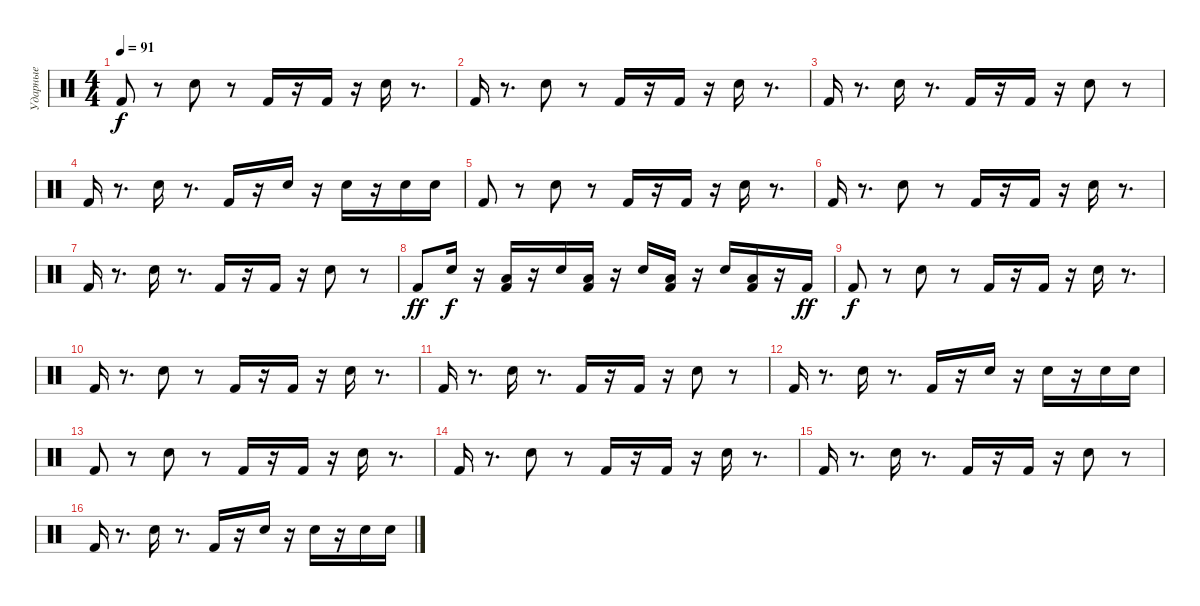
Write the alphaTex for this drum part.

\track ("Ударные" "Ударные") {instrument percussion}
\staff {score}
\articulation defaults
\ts (4 4)
\tempo 91
\clef neutral
\ks c "Kick (hit) 2".8{dy f}
r.8 "Electric Snare (hit)".8 r.8 "Kick (hit) 2".16 r.16 "Kick (hit) 2".16 r.16 "Electric Snare (hit)".16 r.8{d} |
"Kick (hit) 2".16 r.8{d} "Electric Snare (hit)".8 r.8 "Kick (hit) 2".16 r.16 "Kick (hit) 2".16 r.16 "Electric Snare (hit)".16 r.8{d} |
"Kick (hit) 2".16 r.8{d} "Electric Snare (hit)".16 r.8{d} "Kick (hit) 2".16 r.16 "Kick (hit) 2".16 r.16 "Electric Snare (hit)".8 r.8 |
"Kick (hit) 2".16 r.8{d} "Electric Snare (hit)".16 r.8{d} "Kick (hit) 2".16 r.16 "Electric Snare (hit)".16 r.16 "Electric Snare (hit)".16 r.16 "Electric Snare (hit)".16 "Electric Snare (hit)".16 |
"Kick (hit) 2".8 r.8 "Electric Snare (hit)".8 r.8 "Kick (hit) 2".16 r.16 "Kick (hit) 2".16 r.16 "Electric Snare (hit)".16 r.8{d} |
"Kick (hit) 2".16 r.8{d} "Electric Snare (hit)".8 r.8 "Kick (hit) 2".16 r.16 "Kick (hit) 2".16 r.16 "Electric Snare (hit)".16 r.8{d} |
"Kick (hit) 2".16 r.8{d} "Electric Snare (hit)".16 r.8{d} "Kick (hit) 2".16 r.16 "Kick (hit) 2".16 r.16 "Electric Snare (hit)".8 r.8 |
"Kick (hit) 2".8{dy ff} "Electric Snare (hit)".16{dy f} r.16 ("Low Floor Tom (hit)" "Kick (hit) 2").16 r.16 "Electric Snare (hit)".16 ("Low Floor Tom (hit)" "Kick (hit) 2").16 r.16 "Electric Snare (hit)".16 ("Low Floor Tom (hit)" "Kick (hit) 2").16 r.16 "Electric Snare (hit)".16 ("Low Floor Tom (hit)" "Kick (hit) 2").16 r.16 "Kick (hit) 2".16{dy ff} |
"Kick (hit) 2".8{dy f} r.8 "Electric Snare (hit)".8 r.8 "Kick (hit) 2".16 r.16 "Kick (hit) 2".16 r.16 "Electric Snare (hit)".16 r.8{d} |
"Kick (hit) 2".16 r.8{d} "Electric Snare (hit)".8 r.8 "Kick (hit) 2".16 r.16 "Kick (hit) 2".16 r.16 "Electric Snare (hit)".16 r.8{d} |
"Kick (hit) 2".16 r.8{d} "Electric Snare (hit)".16 r.8{d} "Kick (hit) 2".16 r.16 "Kick (hit) 2".16 r.16 "Electric Snare (hit)".8 r.8 |
"Kick (hit) 2".16 r.8{d} "Electric Snare (hit)".16 r.8{d} "Kick (hit) 2".16 r.16 "Electric Snare (hit)".16 r.16 "Electric Snare (hit)".16 r.16 "Electric Snare (hit)".16 "Electric Snare (hit)".16 |
"Kick (hit) 2".8 r.8 "Electric Snare (hit)".8 r.8 "Kick (hit) 2".16 r.16 "Kick (hit) 2".16 r.16 "Electric Snare (hit)".16 r.8{d} |
"Kick (hit) 2".16 r.8{d} "Electric Snare (hit)".8 r.8 "Kick (hit) 2".16 r.16 "Kick (hit) 2".16 r.16 "Electric Snare (hit)".16 r.8{d} |
"Kick (hit) 2".16 r.8{d} "Electric Snare (hit)".16 r.8{d} "Kick (hit) 2".16 r.16 "Kick (hit) 2".16 r.16 "Electric Snare (hit)".8 r.8 |
"Kick (hit) 2".16 r.8{d} "Electric Snare (hit)".16 r.8{d} "Kick (hit) 2".16 r.16 "Electric Snare (hit)".16 r.16 "Electric Snare (hit)".16 r.16 "Electric Snare (hit)".16 "Electric Snare (hit)".16
